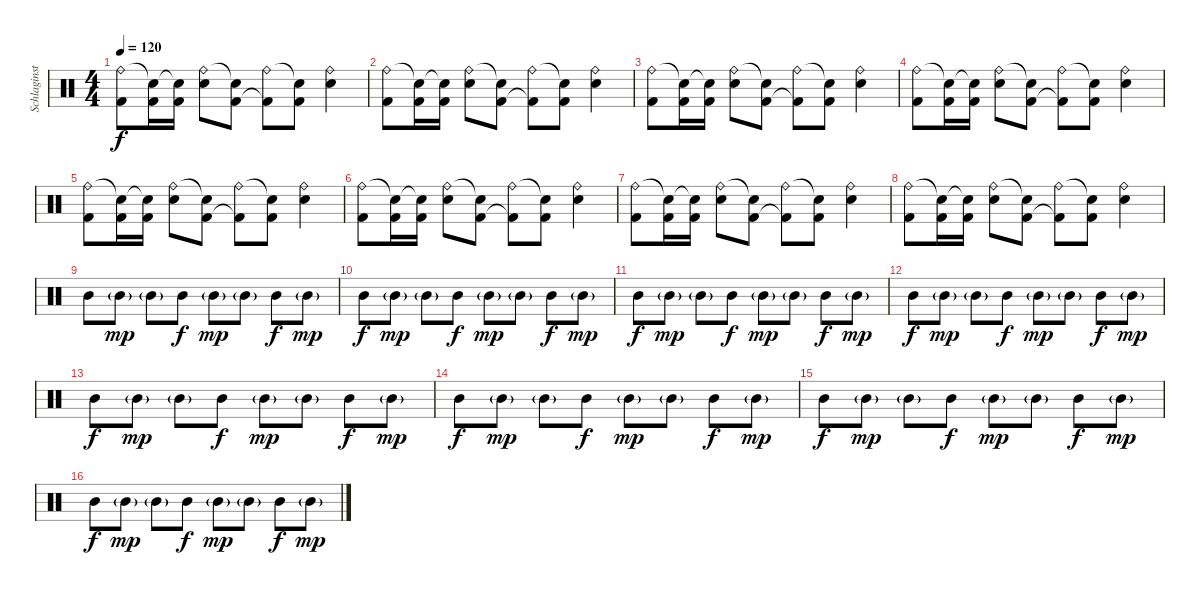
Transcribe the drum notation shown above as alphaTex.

\track ("Schlaginstrumente - Auswahl" "Schlaginst") {instrument percussion}
\staff {score}
\articulation defaults
\ts (4 4)
\tempo 120
\clef neutral
\ks c
("Ride (bell)" "Kick (hit) 2").8{dy f} ("Snare (hit)"{t} "Kick (hit) 2").16 ("Snare (hit)"{t} "Kick (hit) 2").16 ("Ride (bell)" "Snare (hit) 2").8 ("Snare (hit)"{t} "Kick (hit) 2").8 ("Ride (bell)" "Kick (hit) 2"{t}).8 ("Snare (hit)"{t} "Kick (hit) 2").8 ("Ride (bell)" "Snare (hit) 2").4 |
("Ride (bell)" "Kick (hit) 2").8 ("Snare (hit)"{t} "Kick (hit) 2").16 ("Snare (hit)"{t} "Kick (hit) 2").16 ("Ride (bell)" "Snare (hit) 2").8 ("Snare (hit)"{t} "Kick (hit) 2").8 ("Ride (bell)" "Kick (hit) 2"{t}).8 ("Snare (hit)"{t} "Kick (hit) 2").8 ("Ride (bell)" "Snare (hit) 2").4 |
("Ride (bell)" "Kick (hit) 2").8 ("Snare (hit)"{t} "Kick (hit) 2").16 ("Snare (hit)"{t} "Kick (hit) 2").16 ("Ride (bell)" "Snare (hit) 2").8 ("Snare (hit)"{t} "Kick (hit) 2").8 ("Ride (bell)" "Kick (hit) 2"{t}).8 ("Snare (hit)"{t} "Kick (hit) 2").8 ("Ride (bell)" "Snare (hit) 2").4 |
("Ride (bell)" "Kick (hit) 2").8 ("Snare (hit)"{t} "Kick (hit) 2").16 ("Snare (hit)"{t} "Kick (hit) 2").16 ("Ride (bell)" "Snare (hit) 2").8 ("Snare (hit)"{t} "Kick (hit) 2").8 ("Ride (bell)" "Kick (hit) 2"{t}).8 ("Snare (hit)"{t} "Kick (hit) 2").8 ("Ride (bell)" "Snare (hit) 2").4 |
("Ride (bell)" "Kick (hit) 2").8 ("Snare (hit)"{t} "Kick (hit) 2").16 ("Snare (hit)"{t} "Kick (hit) 2").16 ("Ride (bell)" "Snare (hit) 2").8 ("Snare (hit)"{t} "Kick (hit) 2").8 ("Ride (bell)" "Kick (hit) 2"{t}).8 ("Snare (hit)"{t} "Kick (hit) 2").8 ("Ride (bell)" "Snare (hit) 2").4 |
("Ride (bell)" "Kick (hit) 2").8 ("Snare (hit)"{t} "Kick (hit) 2").16 ("Snare (hit)"{t} "Kick (hit) 2").16 ("Ride (bell)" "Snare (hit) 2").8 ("Snare (hit)"{t} "Kick (hit) 2").8 ("Ride (bell)" "Kick (hit) 2"{t}).8 ("Snare (hit)"{t} "Kick (hit) 2").8 ("Ride (bell)" "Snare (hit) 2").4 |
("Ride (bell)" "Kick (hit) 2").8 ("Snare (hit)"{t} "Kick (hit) 2").16 ("Snare (hit)"{t} "Kick (hit) 2").16 ("Ride (bell)" "Snare (hit) 2").8 ("Snare (hit)"{t} "Kick (hit) 2").8 ("Ride (bell)" "Kick (hit) 2"{t}).8 ("Snare (hit)"{t} "Kick (hit) 2").8 ("Ride (bell)" "Snare (hit) 2").4 |
("Ride (bell)" "Kick (hit) 2").8 ("Snare (hit)"{t} "Kick (hit) 2").16 ("Snare (hit)"{t} "Kick (hit) 2").16 ("Ride (bell)" "Snare (hit) 2").8 ("Snare (hit)"{t} "Kick (hit) 2").8 ("Ride (bell)" "Kick (hit) 2"{t}).8 ("Snare (hit)"{t} "Kick (hit) 2").8 ("Ride (bell)" "Snare (hit) 2").4 |
"Mid Tom (hit)".8 "Mid Tom (hit)"{g}.8{dy mp} "Mid Tom (hit)"{g}.8 "Mid Tom (hit)".8{dy f} "Mid Tom (hit)"{g}.8{dy mp} "Mid Tom (hit)"{g}.8 "Mid Tom (hit)".8{dy f} "Mid Tom (hit)"{g}.8{dy mp} |
"Mid Tom (hit)".8{dy f} "Mid Tom (hit)"{g}.8{dy mp} "Mid Tom (hit)"{g}.8 "Mid Tom (hit)".8{dy f} "Mid Tom (hit)"{g}.8{dy mp} "Mid Tom (hit)"{g}.8 "Mid Tom (hit)".8{dy f} "Mid Tom (hit)"{g}.8{dy mp} |
"Mid Tom (hit)".8{dy f} "Mid Tom (hit)"{g}.8{dy mp} "Mid Tom (hit)"{g}.8 "Mid Tom (hit)".8{dy f} "Mid Tom (hit)"{g}.8{dy mp} "Mid Tom (hit)"{g}.8 "Mid Tom (hit)".8{dy f} "Mid Tom (hit)"{g}.8{dy mp} |
"Mid Tom (hit)".8{dy f} "Mid Tom (hit)"{g}.8{dy mp} "Mid Tom (hit)"{g}.8 "Mid Tom (hit)".8{dy f} "Mid Tom (hit)"{g}.8{dy mp} "Mid Tom (hit)"{g}.8 "Mid Tom (hit)".8{dy f} "Mid Tom (hit)"{g}.8{dy mp} |
"Mid Tom (hit)".8{dy f} "Mid Tom (hit)"{g}.8{dy mp} "Mid Tom (hit)"{g}.8 "Mid Tom (hit)".8{dy f} "Mid Tom (hit)"{g}.8{dy mp} "Mid Tom (hit)"{g}.8 "Mid Tom (hit)".8{dy f} "Mid Tom (hit)"{g}.8{dy mp} |
"Mid Tom (hit)".8{dy f} "Mid Tom (hit)"{g}.8{dy mp} "Mid Tom (hit)"{g}.8 "Mid Tom (hit)".8{dy f} "Mid Tom (hit)"{g}.8{dy mp} "Mid Tom (hit)"{g}.8 "Mid Tom (hit)".8{dy f} "Mid Tom (hit)"{g}.8{dy mp} |
"Mid Tom (hit)".8{dy f} "Mid Tom (hit)"{g}.8{dy mp} "Mid Tom (hit)"{g}.8 "Mid Tom (hit)".8{dy f} "Mid Tom (hit)"{g}.8{dy mp} "Mid Tom (hit)"{g}.8 "Mid Tom (hit)".8{dy f} "Mid Tom (hit)"{g}.8{dy mp} |
"Mid Tom (hit)".8{dy f} "Mid Tom (hit)"{g}.8{dy mp} "Mid Tom (hit)"{g}.8 "Mid Tom (hit)".8{dy f} "Mid Tom (hit)"{g}.8{dy mp} "Mid Tom (hit)"{g}.8 "Mid Tom (hit)".8{dy f} "Mid Tom (hit)"{g}.8{dy mp}
